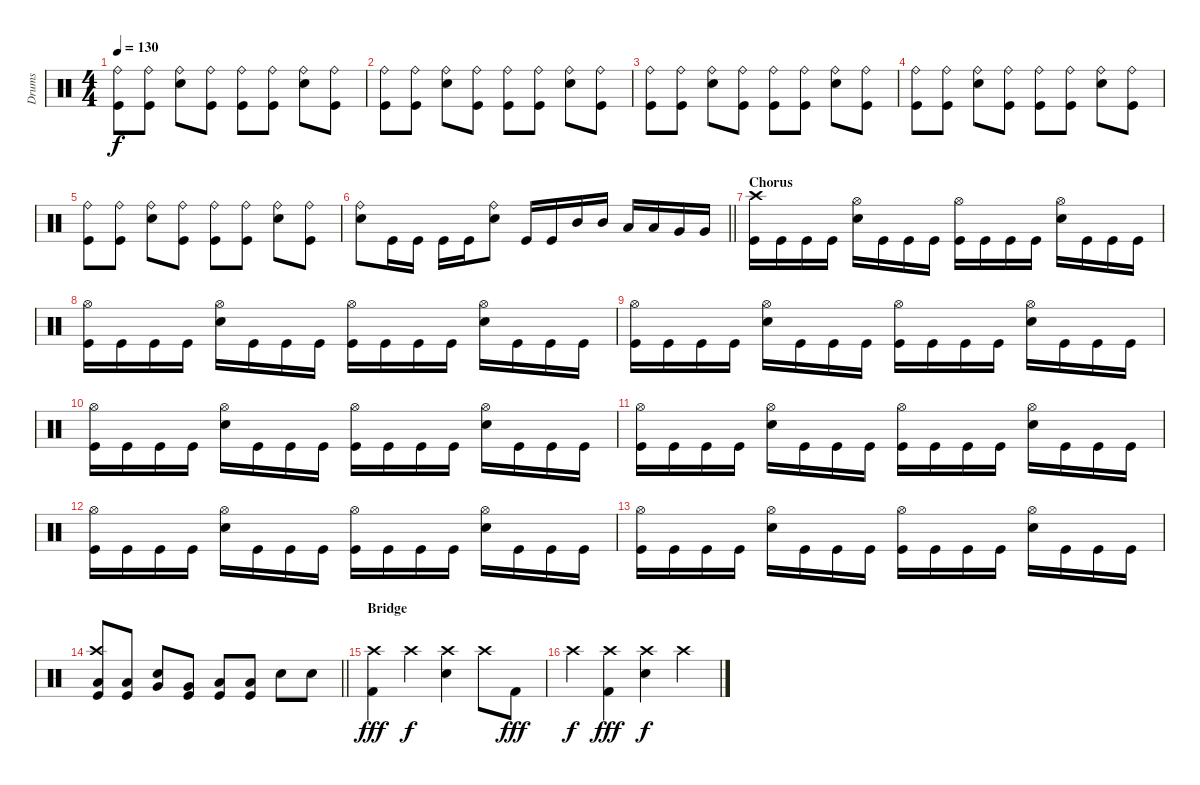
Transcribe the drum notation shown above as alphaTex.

\track ("Drums" "Drums") {instrument percussion}
\staff {score}
\articulation defaults
\ts (4 4)
\tempo 130
\clef neutral
\ks c
("Ride (bell)" "Kick (hit)").8{dy f} ("Ride (bell)" "Kick (hit)").8 ("Ride (bell)" "Electric Snare (hit)").8 ("Ride (bell)" "Kick (hit)").8 ("Ride (bell)" "Kick (hit)").8 ("Ride (bell)" "Kick (hit)").8 ("Ride (bell)" "Electric Snare (hit)").8 ("Ride (bell)" "Kick (hit)").8 |
("Ride (bell)" "Kick (hit)").8 ("Ride (bell)" "Kick (hit)").8 ("Ride (bell)" "Electric Snare (hit)").8 ("Ride (bell)" "Kick (hit)").8 ("Ride (bell)" "Kick (hit)").8 ("Ride (bell)" "Kick (hit)").8 ("Ride (bell)" "Electric Snare (hit)").8 ("Ride (bell)" "Kick (hit)").8 |
("Ride (bell)" "Kick (hit)").8 ("Ride (bell)" "Kick (hit)").8 ("Ride (bell)" "Electric Snare (hit)").8 ("Ride (bell)" "Kick (hit)").8 ("Ride (bell)" "Kick (hit)").8 ("Ride (bell)" "Kick (hit)").8 ("Ride (bell)" "Electric Snare (hit)").8 ("Ride (bell)" "Kick (hit)").8 |
("Ride (bell)" "Kick (hit)").8 ("Ride (bell)" "Kick (hit)").8 ("Ride (bell)" "Electric Snare (hit)").8 ("Ride (bell)" "Kick (hit)").8 ("Ride (bell)" "Kick (hit)").8 ("Ride (bell)" "Kick (hit)").8 ("Ride (bell)" "Electric Snare (hit)").8 ("Ride (bell)" "Kick (hit)").8 |
("Ride (bell)" "Kick (hit)").8 ("Ride (bell)" "Kick (hit)").8 ("Ride (bell)" "Electric Snare (hit)").8 ("Ride (bell)" "Kick (hit)").8 ("Ride (bell)" "Kick (hit)").8 ("Ride (bell)" "Kick (hit)").8 ("Ride (bell)" "Electric Snare (hit)").8 ("Ride (bell)" "Kick (hit)").8 |
\barLineRight lightlight
("Ride (bell)" "Electric Snare (hit)").8 "Kick (hit)".16 "Kick (hit)".16 "Kick (hit)".16 "Kick (hit)".16 ("Ride (bell)" "Electric Snare (hit)").8 "Kick (hit)".16 "Kick (hit)".16 "Mid Tom (hit)".16 "Mid Tom (hit)".16 "Low Tom (hit)".16 "Low Tom (hit)".16 "Very Low Tom (hit)".16 "Very Low Tom (hit)".16 |
\section ("" "Chorus ")
("Crash high (hit)" "Kick (hit)").16 "Kick (hit)".16 "Kick (hit)".16 "Kick (hit)".16 ("Hi-Hat (open)" "Electric Snare (hit)").16 "Kick (hit)".16 "Kick (hit)".16 "Kick (hit)".16 ("Hi-Hat (open)" "Kick (hit)").16 "Kick (hit)".16 "Kick (hit)".16 "Kick (hit)".16 ("Hi-Hat (open)" "Electric Snare (hit)").16 "Kick (hit)".16 "Kick (hit)".16 "Kick (hit)".16 |
("Hi-Hat (open)" "Kick (hit)").16 "Kick (hit)".16 "Kick (hit)".16 "Kick (hit)".16 ("Hi-Hat (open)" "Electric Snare (hit)").16 "Kick (hit)".16 "Kick (hit)".16 "Kick (hit)".16 ("Hi-Hat (open)" "Kick (hit)").16 "Kick (hit)".16 "Kick (hit)".16 "Kick (hit)".16 ("Hi-Hat (open)" "Electric Snare (hit)").16 "Kick (hit)".16 "Kick (hit)".16 "Kick (hit)".16 |
("Hi-Hat (open)" "Kick (hit)").16 "Kick (hit)".16 "Kick (hit)".16 "Kick (hit)".16 ("Hi-Hat (open)" "Electric Snare (hit)").16 "Kick (hit)".16 "Kick (hit)".16 "Kick (hit)".16 ("Hi-Hat (open)" "Kick (hit)").16 "Kick (hit)".16 "Kick (hit)".16 "Kick (hit)".16 ("Hi-Hat (open)" "Electric Snare (hit)").16 "Kick (hit)".16 "Kick (hit)".16 "Kick (hit)".16 |
("Hi-Hat (open)" "Kick (hit)").16 "Kick (hit)".16 "Kick (hit)".16 "Kick (hit)".16 ("Hi-Hat (open)" "Electric Snare (hit)").16 "Kick (hit)".16 "Kick (hit)".16 "Kick (hit)".16 ("Hi-Hat (open)" "Kick (hit)").16 "Kick (hit)".16 "Kick (hit)".16 "Kick (hit)".16 ("Hi-Hat (open)" "Electric Snare (hit)").16 "Kick (hit)".16 "Kick (hit)".16 "Kick (hit)".16 |
("Hi-Hat (open)" "Kick (hit)").16 "Kick (hit)".16 "Kick (hit)".16 "Kick (hit)".16 ("Hi-Hat (open)" "Electric Snare (hit)").16 "Kick (hit)".16 "Kick (hit)".16 "Kick (hit)".16 ("Hi-Hat (open)" "Kick (hit)").16 "Kick (hit)".16 "Kick (hit)".16 "Kick (hit)".16 ("Hi-Hat (open)" "Electric Snare (hit)").16 "Kick (hit)".16 "Kick (hit)".16 "Kick (hit)".16 |
("Hi-Hat (open)" "Kick (hit)").16 "Kick (hit)".16 "Kick (hit)".16 "Kick (hit)".16 ("Hi-Hat (open)" "Electric Snare (hit)").16 "Kick (hit)".16 "Kick (hit)".16 "Kick (hit)".16 ("Hi-Hat (open)" "Kick (hit)").16 "Kick (hit)".16 "Kick (hit)".16 "Kick (hit)".16 ("Hi-Hat (open)" "Electric Snare (hit)").16 "Kick (hit)".16 "Kick (hit)".16 "Kick (hit)".16 |
("Hi-Hat (open)" "Kick (hit)").16 "Kick (hit)".16 "Kick (hit)".16 "Kick (hit)".16 ("Hi-Hat (open)" "Electric Snare (hit)").16 "Kick (hit)".16 "Kick (hit)".16 "Kick (hit)".16 ("Hi-Hat (open)" "Kick (hit)").16 "Kick (hit)".16 "Kick (hit)".16 "Kick (hit)".16 ("Hi-Hat (open)" "Electric Snare (hit)").16 "Kick (hit)".16 "Kick (hit)".16 "Kick (hit)".16 |
\barLineRight lightlight
("Crash high (hit)" "Low Floor Tom (hit)" "Kick (hit)").8 ("Low Floor Tom (hit)" "Kick (hit)").8 ("Very Low Tom (hit)" "Electric Snare (hit)").8 ("Very Low Tom (hit)" "Kick (hit)").8 ("Low Tom (hit)" "Kick (hit)").8 ("Low Tom (hit)" "Kick (hit)").8 "Electric Snare (hit)".8 "Electric Snare (hit)".8 |
\section ("" "Bridge ")
("Crash high (hit)" "Kick (hit) 2").4{dy fff} "Crash high (hit)".4{dy f} ("Crash high (hit)" "Electric Snare (hit)").4 "Crash high (hit)".8 "Kick (hit) 2".8{dy fff} |
"Crash high (hit)".4{dy f} ("Crash high (hit)" "Kick (hit) 2").4{dy fff} ("Crash high (hit)" "Electric Snare (hit)").4{dy f} "Crash high (hit)".4
